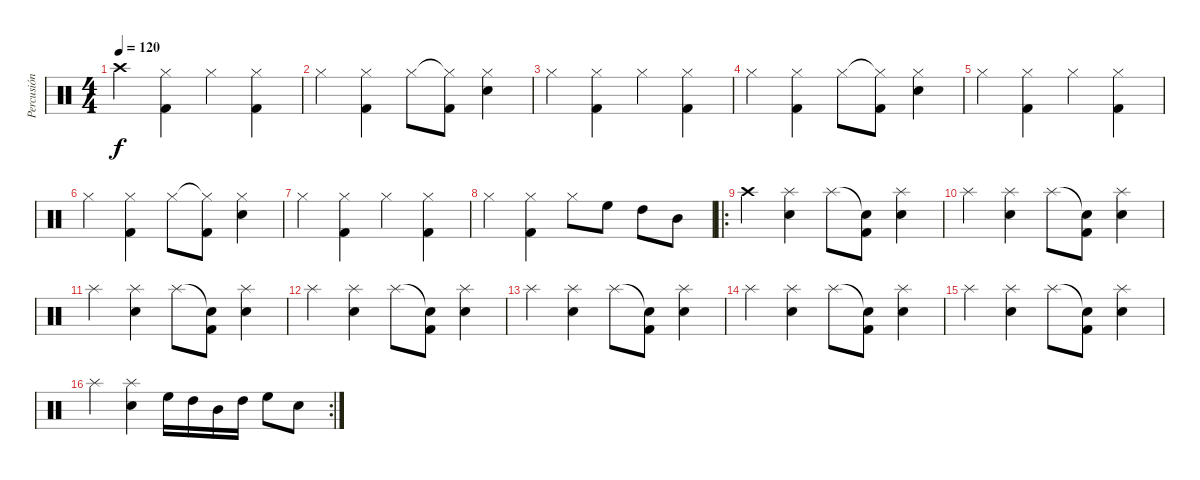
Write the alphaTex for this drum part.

\track ("Percusión" "Percusión") {instrument percussion}
\staff {score}
\articulation defaults
\ts (4 4)
\tempo 120
\clef neutral
\ks c "Crash high (hit)".4{dy f}
("Hi-Hat (closed)" "Kick (hit) 2").4 "Hi-Hat (closed)".4 ("Hi-Hat (closed)" "Kick (hit) 2").4 |
"Hi-Hat (closed)".4 ("Hi-Hat (closed)" "Kick (hit) 2").4 "Hi-Hat (closed)".8 ("Hi-Hat (closed)"{t} "Kick (hit) 2").8 ("Hi-Hat (closed)" "Snare (hit) 2").4 |
"Hi-Hat (closed)".4 ("Hi-Hat (closed)" "Kick (hit) 2").4 "Hi-Hat (closed)".4 ("Hi-Hat (closed)" "Kick (hit) 2").4 |
"Hi-Hat (closed)".4 ("Hi-Hat (closed)" "Kick (hit) 2").4 "Hi-Hat (closed)".8 ("Hi-Hat (closed)"{t} "Kick (hit) 2").8 ("Hi-Hat (closed)" "Snare (hit) 2").4 |
"Hi-Hat (closed)".4 ("Hi-Hat (closed)" "Kick (hit) 2").4 "Hi-Hat (closed)".4 ("Hi-Hat (closed)" "Kick (hit) 2").4 |
"Hi-Hat (closed)".4 ("Hi-Hat (closed)" "Kick (hit) 2").4 "Hi-Hat (closed)".8 ("Hi-Hat (closed)"{t} "Kick (hit) 2").8 ("Hi-Hat (closed)" "Snare (hit) 2").4 |
"Hi-Hat (closed)".4 ("Hi-Hat (closed)" "Kick (hit) 2").4 "Hi-Hat (closed)".4 ("Hi-Hat (closed)" "Kick (hit) 2").4 |
"Hi-Hat (closed)".4 ("Hi-Hat (closed)" "Kick (hit) 2").4 "Hi-Hat (closed)".8 "High Floor Tom (hit)".8 "High Tom (hit)".8 "Mid Tom (hit)".8 |
\ro "Crash high (hit)".4
("Splash (hit)" "Snare (hit) 2").4 "Splash (hit)".8 ("Snare (hit)"{t} "Kick (hit) 2").8 ("Splash (hit)" "Snare (hit) 2").4 |
"Splash (hit)".4 ("Splash (hit)" "Snare (hit) 2").4 "Splash (hit)".8 ("Snare (hit)"{t} "Kick (hit) 2").8 ("Splash (hit)" "Snare (hit) 2").4 |
"Splash (hit)".4 ("Splash (hit)" "Snare (hit) 2").4 "Splash (hit)".8 ("Snare (hit)"{t} "Kick (hit) 2").8 ("Splash (hit)" "Snare (hit) 2").4 |
"Splash (hit)".4 ("Splash (hit)" "Snare (hit) 2").4 "Splash (hit)".8 ("Snare (hit)"{t} "Kick (hit) 2").8 ("Splash (hit)" "Snare (hit) 2").4 |
"Splash (hit)".4 ("Splash (hit)" "Snare (hit) 2").4 "Splash (hit)".8 ("Snare (hit)"{t} "Kick (hit) 2").8 ("Splash (hit)" "Snare (hit) 2").4 |
"Splash (hit)".4 ("Splash (hit)" "Snare (hit) 2").4 "Splash (hit)".8 ("Snare (hit)"{t} "Kick (hit) 2").8 ("Splash (hit)" "Snare (hit) 2").4 |
"Splash (hit)".4 ("Splash (hit)" "Snare (hit) 2").4 "Splash (hit)".8 ("Snare (hit)"{t} "Kick (hit) 2").8 ("Splash (hit)" "Snare (hit) 2").4 |
\rc 2 "Splash (hit)".4
("Splash (hit)" "Snare (hit) 2").4 "High Floor Tom (hit)".16 "High Tom (hit)".16 "Mid Tom (hit)".16 "High Tom (hit)".16 "High Floor Tom (hit)".8 "Snare (hit) 2".8
